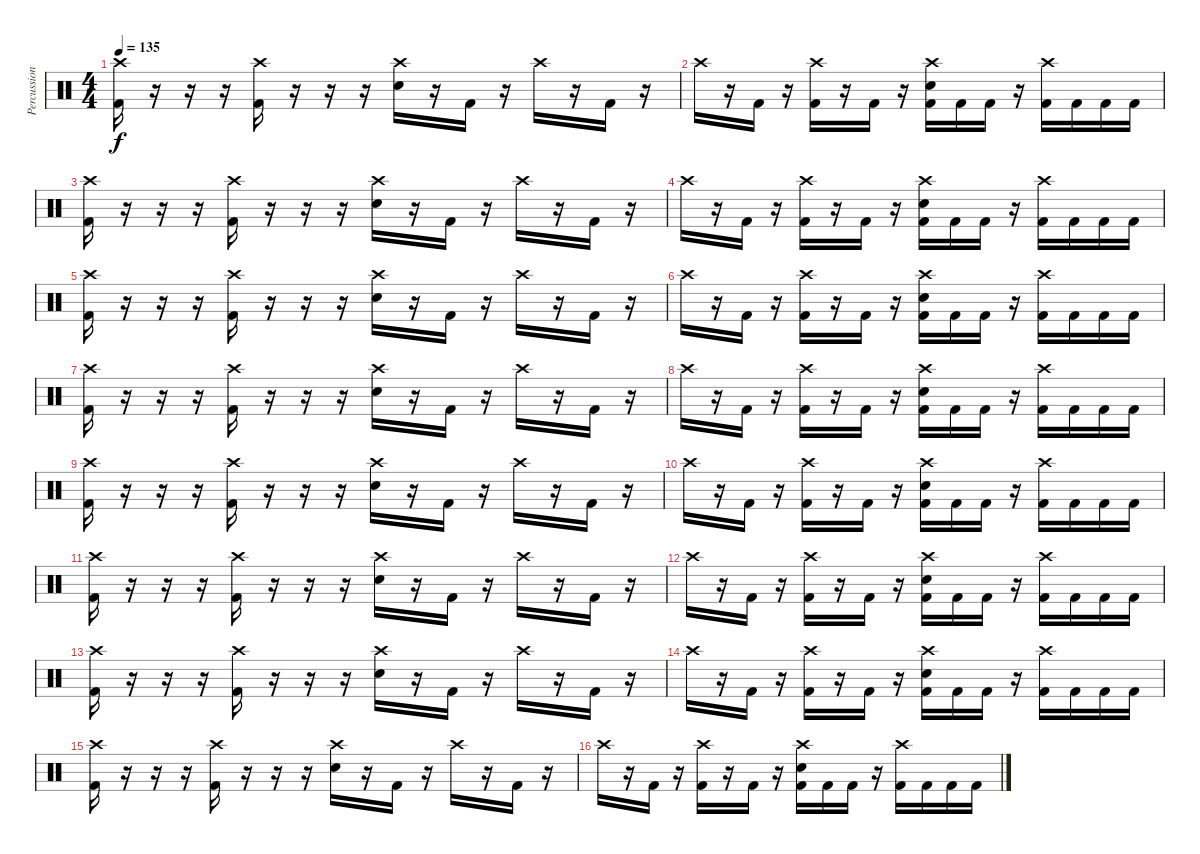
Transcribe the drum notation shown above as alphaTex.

\track ("Percussions" "Percussion") {instrument percussion}
\staff {score}
\articulation defaults
\ts (4 4)
\tempo 135
\clef neutral
\ks c
("Crash high (hit)" "Kick (hit) 2").16{dy f} r.16 r.16 r.16 ("Crash high (hit)" "Kick (hit) 2").16 r.16 r.16 r.16 ("Crash high (hit)" "Electric Snare (hit)").16 r.16 "Kick (hit) 2".16 r.16 "Crash high (hit)".16 r.16 "Kick (hit) 2".16 r.16 |
"Crash high (hit)".16 r.16 "Kick (hit) 2".16 r.16 ("Crash high (hit)" "Kick (hit) 2").16 r.16 "Kick (hit) 2".16 r.16 ("Crash high (hit)" "Electric Snare (hit)" "Kick (hit) 2").16 "Kick (hit) 2".16 "Kick (hit) 2".16 r.16 ("Crash high (hit)" "Kick (hit) 2").16 "Kick (hit) 2".16 "Kick (hit) 2".16 "Kick (hit) 2".16 |
("Crash high (hit)" "Kick (hit) 2").16 r.16 r.16 r.16 ("Crash high (hit)" "Kick (hit) 2").16 r.16 r.16 r.16 ("Crash high (hit)" "Electric Snare (hit)").16 r.16 "Kick (hit) 2".16 r.16 "Crash high (hit)".16 r.16 "Kick (hit) 2".16 r.16 |
"Crash high (hit)".16 r.16 "Kick (hit) 2".16 r.16 ("Crash high (hit)" "Kick (hit) 2").16 r.16 "Kick (hit) 2".16 r.16 ("Crash high (hit)" "Electric Snare (hit)" "Kick (hit) 2").16 "Kick (hit) 2".16 "Kick (hit) 2".16 r.16 ("Crash high (hit)" "Kick (hit) 2").16 "Kick (hit) 2".16 "Kick (hit) 2".16 "Kick (hit) 2".16 |
("Crash high (hit)" "Kick (hit) 2").16 r.16 r.16 r.16 ("Crash high (hit)" "Kick (hit) 2").16 r.16 r.16 r.16 ("Crash high (hit)" "Electric Snare (hit)").16 r.16 "Kick (hit) 2".16 r.16 "Crash high (hit)".16 r.16 "Kick (hit) 2".16 r.16 |
"Crash high (hit)".16 r.16 "Kick (hit) 2".16 r.16 ("Crash high (hit)" "Kick (hit) 2").16 r.16 "Kick (hit) 2".16 r.16 ("Crash high (hit)" "Electric Snare (hit)" "Kick (hit) 2").16 "Kick (hit) 2".16 "Kick (hit) 2".16 r.16 ("Crash high (hit)" "Kick (hit) 2").16 "Kick (hit) 2".16 "Kick (hit) 2".16 "Kick (hit) 2".16 |
("Crash high (hit)" "Kick (hit) 2").16 r.16 r.16 r.16 ("Crash high (hit)" "Kick (hit) 2").16 r.16 r.16 r.16 ("Crash high (hit)" "Electric Snare (hit)").16 r.16 "Kick (hit) 2".16 r.16 "Crash high (hit)".16 r.16 "Kick (hit) 2".16 r.16 |
"Crash high (hit)".16 r.16 "Kick (hit) 2".16 r.16 ("Crash high (hit)" "Kick (hit) 2").16 r.16 "Kick (hit) 2".16 r.16 ("Crash high (hit)" "Electric Snare (hit)" "Kick (hit) 2").16 "Kick (hit) 2".16 "Kick (hit) 2".16 r.16 ("Crash high (hit)" "Kick (hit) 2").16 "Kick (hit) 2".16 "Kick (hit) 2".16 "Kick (hit) 2".16 |
("Crash high (hit)" "Kick (hit) 2").16 r.16 r.16 r.16 ("Crash high (hit)" "Kick (hit) 2").16 r.16 r.16 r.16 ("Crash high (hit)" "Electric Snare (hit)").16 r.16 "Kick (hit) 2".16 r.16 "Crash high (hit)".16 r.16 "Kick (hit) 2".16 r.16 |
"Crash high (hit)".16 r.16 "Kick (hit) 2".16 r.16 ("Crash high (hit)" "Kick (hit) 2").16 r.16 "Kick (hit) 2".16 r.16 ("Crash high (hit)" "Electric Snare (hit)" "Kick (hit) 2").16 "Kick (hit) 2".16 "Kick (hit) 2".16 r.16 ("Crash high (hit)" "Kick (hit) 2").16 "Kick (hit) 2".16 "Kick (hit) 2".16 "Kick (hit) 2".16 |
("Crash high (hit)" "Kick (hit) 2").16 r.16 r.16 r.16 ("Crash high (hit)" "Kick (hit) 2").16 r.16 r.16 r.16 ("Crash high (hit)" "Electric Snare (hit)").16 r.16 "Kick (hit) 2".16 r.16 "Crash high (hit)".16 r.16 "Kick (hit) 2".16 r.16 |
"Crash high (hit)".16 r.16 "Kick (hit) 2".16 r.16 ("Crash high (hit)" "Kick (hit) 2").16 r.16 "Kick (hit) 2".16 r.16 ("Crash high (hit)" "Electric Snare (hit)" "Kick (hit) 2").16 "Kick (hit) 2".16 "Kick (hit) 2".16 r.16 ("Crash high (hit)" "Kick (hit) 2").16 "Kick (hit) 2".16 "Kick (hit) 2".16 "Kick (hit) 2".16 |
("Crash high (hit)" "Kick (hit) 2").16 r.16 r.16 r.16 ("Crash high (hit)" "Kick (hit) 2").16 r.16 r.16 r.16 ("Crash high (hit)" "Electric Snare (hit)").16 r.16 "Kick (hit) 2".16 r.16 "Crash high (hit)".16 r.16 "Kick (hit) 2".16 r.16 |
"Crash high (hit)".16 r.16 "Kick (hit) 2".16 r.16 ("Crash high (hit)" "Kick (hit) 2").16 r.16 "Kick (hit) 2".16 r.16 ("Crash high (hit)" "Electric Snare (hit)" "Kick (hit) 2").16 "Kick (hit) 2".16 "Kick (hit) 2".16 r.16 ("Crash high (hit)" "Kick (hit) 2").16 "Kick (hit) 2".16 "Kick (hit) 2".16 "Kick (hit) 2".16 |
("Crash high (hit)" "Kick (hit) 2").16 r.16 r.16 r.16 ("Crash high (hit)" "Kick (hit) 2").16 r.16 r.16 r.16 ("Crash high (hit)" "Electric Snare (hit)").16 r.16 "Kick (hit) 2".16 r.16 "Crash high (hit)".16 r.16 "Kick (hit) 2".16 r.16 |
"Crash high (hit)".16 r.16 "Kick (hit) 2".16 r.16 ("Crash high (hit)" "Kick (hit) 2").16 r.16 "Kick (hit) 2".16 r.16 ("Crash high (hit)" "Electric Snare (hit)" "Kick (hit) 2").16 "Kick (hit) 2".16 "Kick (hit) 2".16 r.16 ("Crash high (hit)" "Kick (hit) 2").16 "Kick (hit) 2".16 "Kick (hit) 2".16 "Kick (hit) 2".16
